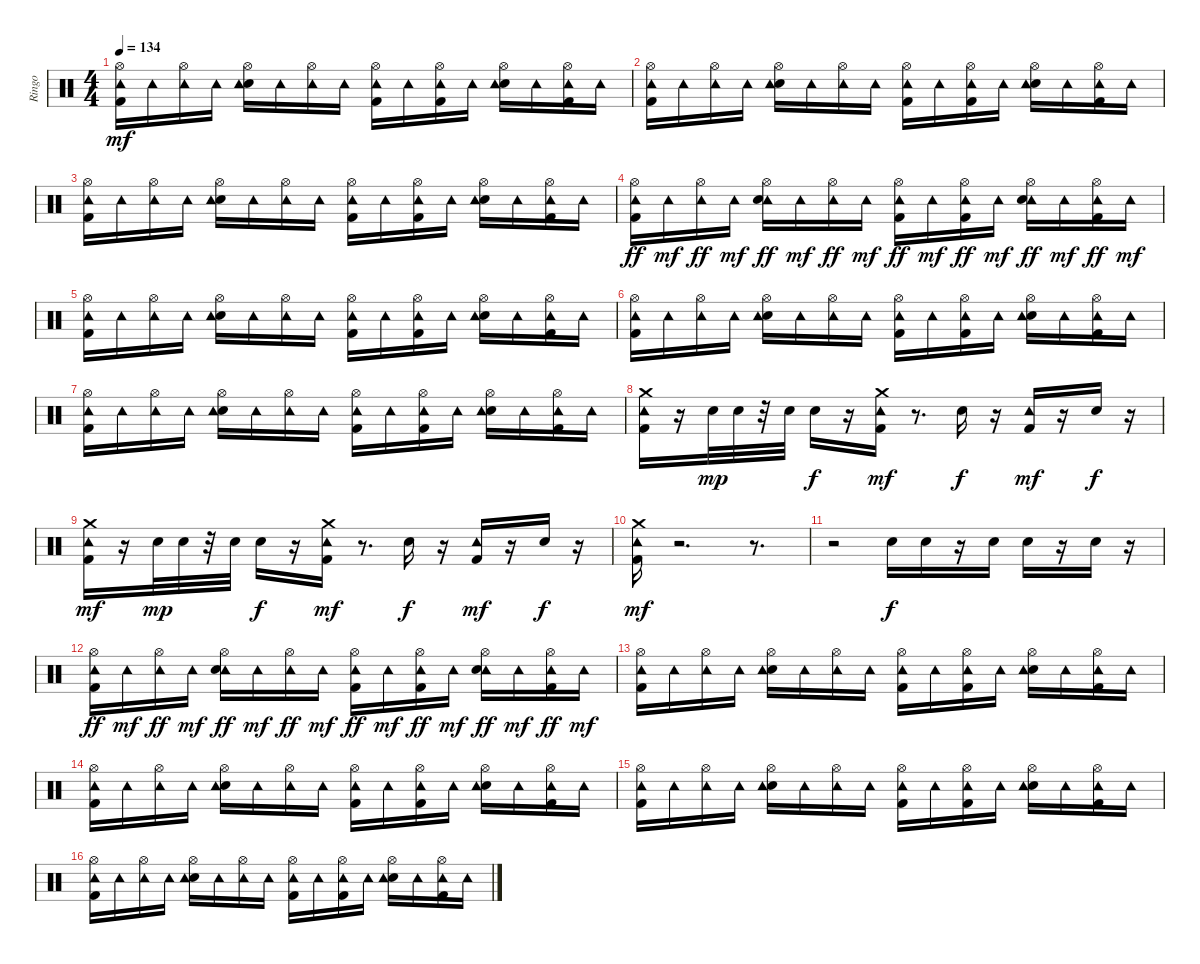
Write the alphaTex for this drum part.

\track ("Ringo" "Ringo") {instrument percussion}
\staff {score}
\articulation defaults
\ts (4 4)
\tempo 134
\clef neutral
\ks c
("Hi-Hat (open)" "Kick (hit) 2" "Tambourine (hit)").16{dy mf} "Tambourine (hit)".16 ("Hi-Hat (open)" "Tambourine (hit)").16 "Tambourine (hit)".16 ("Hi-Hat (open)" "Snare (hit) 2" "Tambourine (hit)").16 "Tambourine (hit)".16 ("Hi-Hat (open)" "Tambourine (hit)").16 "Tambourine (hit)".16 ("Hi-Hat (open)" "Kick (hit) 2" "Tambourine (hit)").16 "Tambourine (hit)".16 ("Hi-Hat (open)" "Kick (hit) 2" "Tambourine (hit)").16 "Tambourine (hit)".16 ("Hi-Hat (open)" "Snare (hit) 2" "Tambourine (hit)").16 "Tambourine (hit)".16 ("Hi-Hat (open)" "Kick (hit) 2" "Tambourine (hit)").16 "Tambourine (hit)".16 |
("Hi-Hat (open)" "Kick (hit) 2" "Tambourine (hit)").16 "Tambourine (hit)".16 ("Hi-Hat (open)" "Tambourine (hit)").16 "Tambourine (hit)".16 ("Hi-Hat (open)" "Snare (hit) 2" "Tambourine (hit)").16 "Tambourine (hit)".16 ("Hi-Hat (open)" "Tambourine (hit)").16 "Tambourine (hit)".16 ("Hi-Hat (open)" "Kick (hit) 2" "Tambourine (hit)").16 "Tambourine (hit)".16 ("Hi-Hat (open)" "Kick (hit) 2" "Tambourine (hit)").16 "Tambourine (hit)".16 ("Hi-Hat (open)" "Snare (hit) 2" "Tambourine (hit)").16 "Tambourine (hit)".16 ("Hi-Hat (open)" "Kick (hit) 2" "Tambourine (hit)").16 "Tambourine (hit)".16 |
("Hi-Hat (open)" "Kick (hit) 2" "Tambourine (hit)").16 "Tambourine (hit)".16 ("Hi-Hat (open)" "Tambourine (hit)").16 "Tambourine (hit)".16 ("Hi-Hat (open)" "Snare (hit) 2" "Tambourine (hit)").16 "Tambourine (hit)".16 ("Hi-Hat (open)" "Tambourine (hit)").16 "Tambourine (hit)".16 ("Hi-Hat (open)" "Kick (hit) 2" "Tambourine (hit)").16 "Tambourine (hit)".16 ("Hi-Hat (open)" "Kick (hit) 2" "Tambourine (hit)").16 "Tambourine (hit)".16 ("Hi-Hat (open)" "Snare (hit) 2" "Tambourine (hit)").16 "Tambourine (hit)".16 ("Hi-Hat (open)" "Kick (hit) 2" "Tambourine (hit)").16 "Tambourine (hit)".16 |
("Tambourine (hit)" "Kick (hit) 2" "Hi-Hat (open)").16{dy ff} "Tambourine (hit)".16{dy mf} ("Tambourine (hit)" "Hi-Hat (open)").16{dy ff} "Tambourine (hit)".16{dy mf} ("Tambourine (hit)" "Snare (hit) 2" "Hi-Hat (open)").16{dy ff} "Tambourine (hit)".16{dy mf} ("Tambourine (hit)" "Hi-Hat (open)").16{dy ff} "Tambourine (hit)".16{dy mf} ("Tambourine (hit)" "Kick (hit) 2" "Hi-Hat (open)").16{dy ff} "Tambourine (hit)".16{dy mf} ("Tambourine (hit)" "Kick (hit) 2" "Hi-Hat (open)").16{dy ff} "Tambourine (hit)".16{dy mf} ("Tambourine (hit)" "Snare (hit) 2" "Hi-Hat (open)").16{dy ff} "Tambourine (hit)".16{dy mf} ("Tambourine (hit)" "Kick (hit) 2" "Hi-Hat (open)").16{dy ff} "Tambourine (hit)".16{dy mf} |
("Hi-Hat (open)" "Kick (hit) 2" "Tambourine (hit)").16 "Tambourine (hit)".16 ("Hi-Hat (open)" "Tambourine (hit)").16 "Tambourine (hit)".16 ("Hi-Hat (open)" "Snare (hit) 2" "Tambourine (hit)").16 "Tambourine (hit)".16 ("Hi-Hat (open)" "Tambourine (hit)").16 "Tambourine (hit)".16 ("Hi-Hat (open)" "Kick (hit) 2" "Tambourine (hit)").16 "Tambourine (hit)".16 ("Hi-Hat (open)" "Kick (hit) 2" "Tambourine (hit)").16 "Tambourine (hit)".16 ("Hi-Hat (open)" "Snare (hit) 2" "Tambourine (hit)").16 "Tambourine (hit)".16 ("Hi-Hat (open)" "Kick (hit) 2" "Tambourine (hit)").16 "Tambourine (hit)".16 |
("Hi-Hat (open)" "Kick (hit) 2" "Tambourine (hit)").16 "Tambourine (hit)".16 ("Hi-Hat (open)" "Tambourine (hit)").16 "Tambourine (hit)".16 ("Hi-Hat (open)" "Snare (hit) 2" "Tambourine (hit)").16 "Tambourine (hit)".16 ("Hi-Hat (open)" "Tambourine (hit)").16 "Tambourine (hit)".16 ("Hi-Hat (open)" "Kick (hit) 2" "Tambourine (hit)").16 "Tambourine (hit)".16 ("Hi-Hat (open)" "Kick (hit) 2" "Tambourine (hit)").16 "Tambourine (hit)".16 ("Hi-Hat (open)" "Snare (hit) 2" "Tambourine (hit)").16 "Tambourine (hit)".16 ("Hi-Hat (open)" "Kick (hit) 2" "Tambourine (hit)").16 "Tambourine (hit)".16 |
("Hi-Hat (open)" "Kick (hit) 2" "Tambourine (hit)").16 "Tambourine (hit)".16 ("Hi-Hat (open)" "Tambourine (hit)").16 "Tambourine (hit)".16 ("Hi-Hat (open)" "Snare (hit) 2" "Tambourine (hit)").16 "Tambourine (hit)".16 ("Hi-Hat (open)" "Tambourine (hit)").16 "Tambourine (hit)".16 ("Hi-Hat (open)" "Kick (hit) 2" "Tambourine (hit)").16 "Tambourine (hit)".16 ("Hi-Hat (open)" "Kick (hit) 2" "Tambourine (hit)").16 "Tambourine (hit)".16 ("Hi-Hat (open)" "Snare (hit) 2" "Tambourine (hit)").16 "Tambourine (hit)".16 ("Hi-Hat (open)" "Kick (hit) 2" "Tambourine (hit)").16 "Tambourine (hit)".16 |
("Crash medium (hit)" "Kick (hit) 2" "Tambourine (hit)").16 r.16 "Snare (hit) 2".32{dy mp} "Snare (hit) 2".32 r.32 "Snare (hit) 2".32 "Snare (hit) 2".16{dy f} r.16 ("Crash medium (hit)" "Kick (hit) 2" "Tambourine (hit)").16{dy mf} r.8{d} "Snare (hit) 2".16{dy f} r.16 ("Kick (hit) 2" "Tambourine (hit)").16{dy mf} r.16 "Snare (hit) 2".16{dy f} r.16 |
("Kick (hit) 2" "Crash medium (hit)" "Tambourine (hit)").16{dy mf} r.16 "Snare (hit) 2".32{dy mp} "Snare (hit) 2".32 r.32 "Snare (hit) 2".32 "Snare (hit) 2".16{dy f} r.16 ("Kick (hit) 2" "Crash medium (hit)" "Tambourine (hit)").16{dy mf} r.8{d} "Snare (hit) 2".16{dy f} r.16 ("Kick (hit) 2" "Tambourine (hit)").16{dy mf} r.16 "Snare (hit) 2".16{dy f} r.16 |
("Crash medium (hit)" "Kick (hit) 2" "Tambourine (hit)").16{dy mf} r.2{d} r.8{d} |
r.2 "Snare (hit) 2".16{dy f} "Snare (hit) 2".16 r.16 "Snare (hit) 2".16 "Snare (hit) 2".16 r.16 "Snare (hit) 2".16 r.16 |
("Tambourine (hit)" "Kick (hit) 2" "Hi-Hat (open)").16{dy ff} "Tambourine (hit)".16{dy mf} ("Tambourine (hit)" "Hi-Hat (open)").16{dy ff} "Tambourine (hit)".16{dy mf} ("Tambourine (hit)" "Snare (hit) 2" "Hi-Hat (open)").16{dy ff} "Tambourine (hit)".16{dy mf} ("Tambourine (hit)" "Hi-Hat (open)").16{dy ff} "Tambourine (hit)".16{dy mf} ("Tambourine (hit)" "Kick (hit) 2" "Hi-Hat (open)").16{dy ff} "Tambourine (hit)".16{dy mf} ("Tambourine (hit)" "Kick (hit) 2" "Hi-Hat (open)").16{dy ff} "Tambourine (hit)".16{dy mf} ("Tambourine (hit)" "Snare (hit) 2" "Hi-Hat (open)").16{dy ff} "Tambourine (hit)".16{dy mf} ("Tambourine (hit)" "Kick (hit) 2" "Hi-Hat (open)").16{dy ff} "Tambourine (hit)".16{dy mf} |
("Hi-Hat (open)" "Kick (hit) 2" "Tambourine (hit)").16 "Tambourine (hit)".16 ("Hi-Hat (open)" "Tambourine (hit)").16 "Tambourine (hit)".16 ("Hi-Hat (open)" "Snare (hit) 2" "Tambourine (hit)").16 "Tambourine (hit)".16 ("Hi-Hat (open)" "Tambourine (hit)").16 "Tambourine (hit)".16 ("Hi-Hat (open)" "Kick (hit) 2" "Tambourine (hit)").16 "Tambourine (hit)".16 ("Hi-Hat (open)" "Kick (hit) 2" "Tambourine (hit)").16 "Tambourine (hit)".16 ("Hi-Hat (open)" "Snare (hit) 2" "Tambourine (hit)").16 "Tambourine (hit)".16 ("Hi-Hat (open)" "Kick (hit) 2" "Tambourine (hit)").16 "Tambourine (hit)".16 |
("Hi-Hat (open)" "Kick (hit) 2" "Tambourine (hit)").16 "Tambourine (hit)".16 ("Hi-Hat (open)" "Tambourine (hit)").16 "Tambourine (hit)".16 ("Hi-Hat (open)" "Snare (hit) 2" "Tambourine (hit)").16 "Tambourine (hit)".16 ("Hi-Hat (open)" "Tambourine (hit)").16 "Tambourine (hit)".16 ("Hi-Hat (open)" "Kick (hit) 2" "Tambourine (hit)").16 "Tambourine (hit)".16 ("Hi-Hat (open)" "Kick (hit) 2" "Tambourine (hit)").16 "Tambourine (hit)".16 ("Hi-Hat (open)" "Snare (hit) 2" "Tambourine (hit)").16 "Tambourine (hit)".16 ("Hi-Hat (open)" "Kick (hit) 2" "Tambourine (hit)").16 "Tambourine (hit)".16 |
("Hi-Hat (open)" "Kick (hit) 2" "Tambourine (hit)").16 "Tambourine (hit)".16 ("Hi-Hat (open)" "Tambourine (hit)").16 "Tambourine (hit)".16 ("Hi-Hat (open)" "Snare (hit) 2" "Tambourine (hit)").16 "Tambourine (hit)".16 ("Hi-Hat (open)" "Tambourine (hit)").16 "Tambourine (hit)".16 ("Hi-Hat (open)" "Kick (hit) 2" "Tambourine (hit)").16 "Tambourine (hit)".16 ("Hi-Hat (open)" "Kick (hit) 2" "Tambourine (hit)").16 "Tambourine (hit)".16 ("Hi-Hat (open)" "Snare (hit) 2" "Tambourine (hit)").16 "Tambourine (hit)".16 ("Hi-Hat (open)" "Kick (hit) 2" "Tambourine (hit)").16 "Tambourine (hit)".16 |
("Hi-Hat (open)" "Kick (hit) 2" "Tambourine (hit)").16 "Tambourine (hit)".16 ("Hi-Hat (open)" "Tambourine (hit)").16 "Tambourine (hit)".16 ("Hi-Hat (open)" "Snare (hit) 2" "Tambourine (hit)").16 "Tambourine (hit)".16 ("Hi-Hat (open)" "Tambourine (hit)").16 "Tambourine (hit)".16 ("Hi-Hat (open)" "Kick (hit) 2" "Tambourine (hit)").16 "Tambourine (hit)".16 ("Hi-Hat (open)" "Kick (hit) 2" "Tambourine (hit)").16 "Tambourine (hit)".16 ("Hi-Hat (open)" "Snare (hit) 2" "Tambourine (hit)").16 "Tambourine (hit)".16 ("Hi-Hat (open)" "Kick (hit) 2" "Tambourine (hit)").16 "Tambourine (hit)".16
